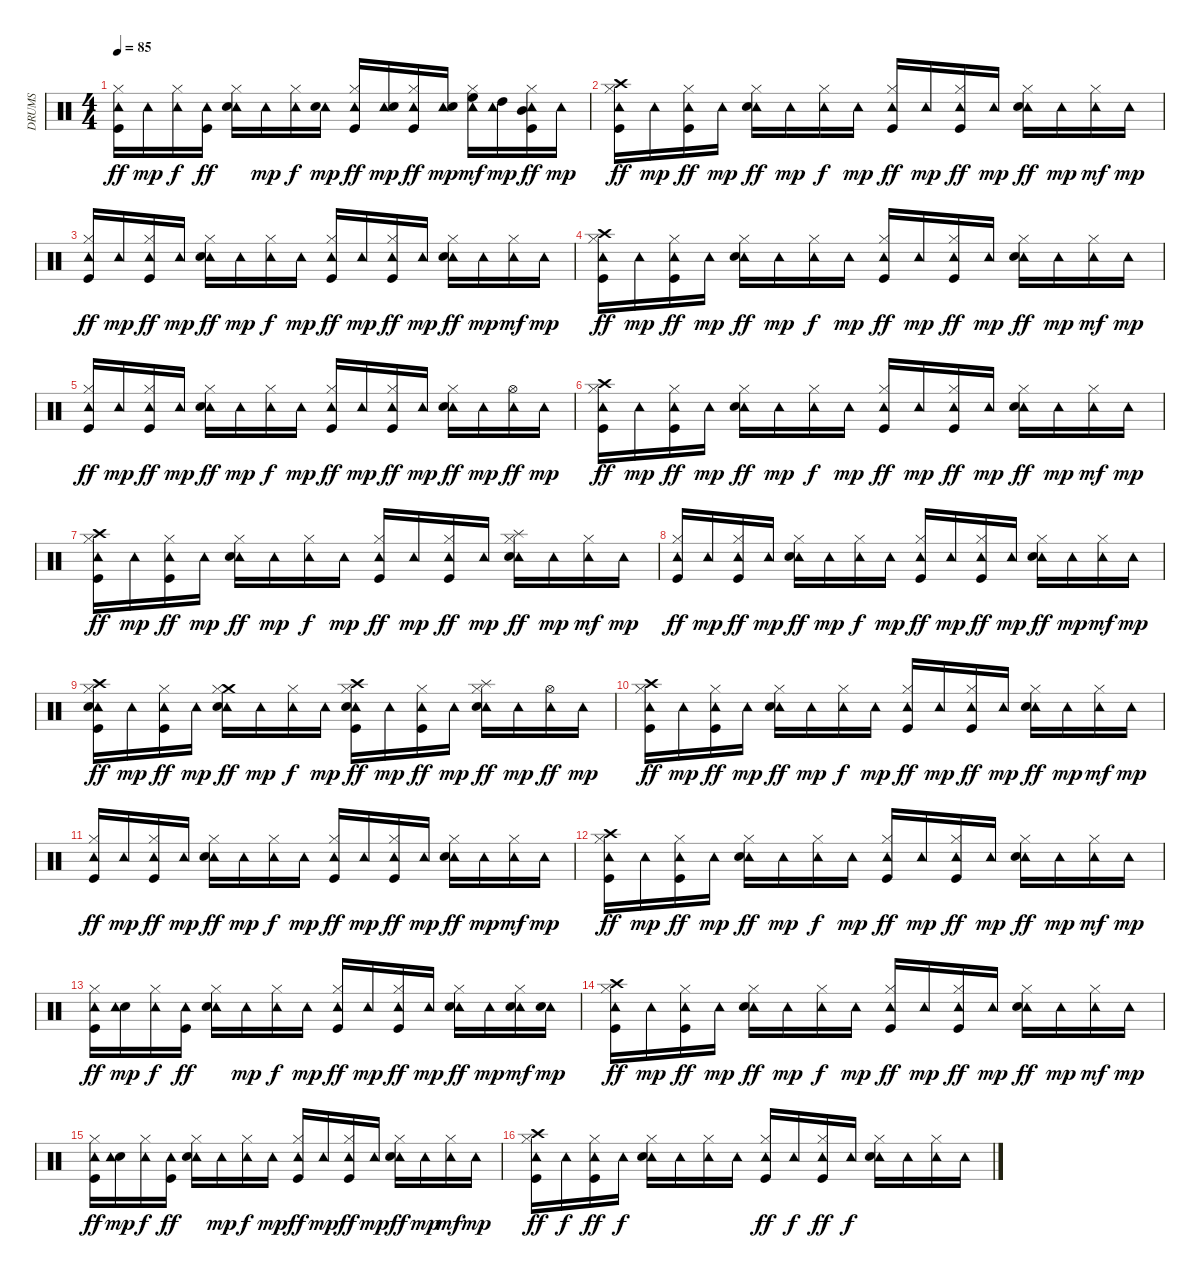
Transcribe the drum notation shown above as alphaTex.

\track ("DRUMS" "DRUMS") {instrument percussion}
\staff {score}
\articulation defaults
\ts (4 4)
\tempo 85
\clef neutral
\ks c
("Tambourine (hit)" "Hi-Hat (closed)" "Kick (hit)").16{dy ff} "Tambourine (hit)".16{dy mp} ("Tambourine (hit)" "Hi-Hat (closed)").16{dy f} ("Tambourine (hit)" "Kick (hit)").16{dy ff} ("Tambourine (hit)" "Electric Snare (hit)" "Hi-Hat (closed)").16 "Tambourine (hit)".16{dy mp} ("Tambourine (hit)" "Hi-Hat (closed)").16{dy f} ("Tambourine (hit)" "Electric Snare (hit)").16{dy mp} ("Tambourine (hit)" "Hi-Hat (closed)" "Kick (hit)").16{dy ff} ("Tambourine (hit)" "Electric Snare (hit)").16{dy mp} ("Tambourine (hit)" "Hi-Hat (closed)" "Kick (hit)").16{dy ff} ("Tambourine (hit)" "Electric Snare (hit)").16{dy mp} ("High Floor Tom (hit)" "Tambourine (hit)" "Hi-Hat (closed)").16{dy mf} ("High Tom (hit)" "Tambourine (hit)").16{dy mp} ("Mid Tom (hit)" "Tambourine (hit)" "Hi-Hat (closed)" "Kick (hit)").16{dy ff} "Tambourine (hit)".16{dy mp} |
("Tambourine (hit)" "Crash high (hit)" "Hi-Hat (closed)" "Kick (hit)").16{dy ff} "Tambourine (hit)".16{dy mp} ("Tambourine (hit)" "Hi-Hat (closed)" "Kick (hit)").16{dy ff} "Tambourine (hit)".16{dy mp} ("Tambourine (hit)" "Electric Snare (hit)" "Hi-Hat (closed)").16{dy ff} "Tambourine (hit)".16{dy mp} ("Tambourine (hit)" "Hi-Hat (closed)").16{dy f} "Tambourine (hit)".16{dy mp} ("Tambourine (hit)" "Hi-Hat (closed)" "Kick (hit)").16{dy ff} "Tambourine (hit)".16{dy mp} ("Tambourine (hit)" "Hi-Hat (closed)" "Kick (hit)").16{dy ff} "Tambourine (hit)".16{dy mp} ("Tambourine (hit)" "Electric Snare (hit)" "Hi-Hat (closed)").16{dy ff} "Tambourine (hit)".16{dy mp} ("Tambourine (hit)" "Hi-Hat (closed)").16{dy mf} "Tambourine (hit)".16{dy mp} |
("Tambourine (hit)" "Hi-Hat (closed)" "Kick (hit)").16{dy ff} "Tambourine (hit)".16{dy mp} ("Tambourine (hit)" "Hi-Hat (closed)" "Kick (hit)").16{dy ff} "Tambourine (hit)".16{dy mp} ("Tambourine (hit)" "Electric Snare (hit)" "Hi-Hat (closed)").16{dy ff} "Tambourine (hit)".16{dy mp} ("Tambourine (hit)" "Hi-Hat (closed)").16{dy f} "Tambourine (hit)".16{dy mp} ("Tambourine (hit)" "Hi-Hat (closed)" "Kick (hit)").16{dy ff} "Tambourine (hit)".16{dy mp} ("Tambourine (hit)" "Hi-Hat (closed)" "Kick (hit)").16{dy ff} "Tambourine (hit)".16{dy mp} ("Tambourine (hit)" "Electric Snare (hit)" "Hi-Hat (closed)").16{dy ff} "Tambourine (hit)".16{dy mp} ("Tambourine (hit)" "Hi-Hat (closed)").16{dy mf} "Tambourine (hit)".16{dy mp} |
("Tambourine (hit)" "Crash high (hit)" "Hi-Hat (closed)" "Kick (hit)").16{dy ff} "Tambourine (hit)".16{dy mp} ("Tambourine (hit)" "Hi-Hat (closed)" "Kick (hit)").16{dy ff} "Tambourine (hit)".16{dy mp} ("Tambourine (hit)" "Electric Snare (hit)" "Hi-Hat (closed)").16{dy ff} "Tambourine (hit)".16{dy mp} ("Tambourine (hit)" "Hi-Hat (closed)").16{dy f} "Tambourine (hit)".16{dy mp} ("Tambourine (hit)" "Hi-Hat (closed)" "Kick (hit)").16{dy ff} "Tambourine (hit)".16{dy mp} ("Tambourine (hit)" "Hi-Hat (closed)" "Kick (hit)").16{dy ff} "Tambourine (hit)".16{dy mp} ("Tambourine (hit)" "Electric Snare (hit)" "Hi-Hat (closed)").16{dy ff} "Tambourine (hit)".16{dy mp} ("Tambourine (hit)" "Hi-Hat (closed)").16{dy mf} "Tambourine (hit)".16{dy mp} |
("Tambourine (hit)" "Hi-Hat (closed)" "Kick (hit)").16{dy ff} "Tambourine (hit)".16{dy mp} ("Tambourine (hit)" "Hi-Hat (closed)" "Kick (hit)").16{dy ff} "Tambourine (hit)".16{dy mp} ("Tambourine (hit)" "Electric Snare (hit)" "Hi-Hat (closed)").16{dy ff} "Tambourine (hit)".16{dy mp} ("Tambourine (hit)" "Hi-Hat (closed)").16{dy f} "Tambourine (hit)".16{dy mp} ("Tambourine (hit)" "Hi-Hat (closed)" "Kick (hit)").16{dy ff} "Tambourine (hit)".16{dy mp} ("Tambourine (hit)" "Hi-Hat (closed)" "Kick (hit)").16{dy ff} "Tambourine (hit)".16{dy mp} ("Tambourine (hit)" "Electric Snare (hit)" "Hi-Hat (closed)").16{dy ff} "Tambourine (hit)".16{dy mp} ("Tambourine (hit)" "Hi-Hat (open)").16{dy ff} "Tambourine (hit)".16{dy mp} |
("Tambourine (hit)" "Crash high (hit)" "Hi-Hat (closed)" "Kick (hit)").16{dy ff} "Tambourine (hit)".16{dy mp} ("Tambourine (hit)" "Hi-Hat (closed)" "Kick (hit)").16{dy ff} "Tambourine (hit)".16{dy mp} ("Tambourine (hit)" "Electric Snare (hit)" "Hi-Hat (closed)").16{dy ff} "Tambourine (hit)".16{dy mp} ("Tambourine (hit)" "Hi-Hat (closed)").16{dy f} "Tambourine (hit)".16{dy mp} ("Tambourine (hit)" "Hi-Hat (closed)" "Kick (hit)").16{dy ff} "Tambourine (hit)".16{dy mp} ("Tambourine (hit)" "Hi-Hat (closed)" "Kick (hit)").16{dy ff} "Tambourine (hit)".16{dy mp} ("Tambourine (hit)" "Electric Snare (hit)" "Hi-Hat (closed)").16{dy ff} "Tambourine (hit)".16{dy mp} ("Tambourine (hit)" "Hi-Hat (closed)").16{dy mf} "Tambourine (hit)".16{dy mp} |
("Tambourine (hit)" "Crash high (hit)" "Hi-Hat (closed)" "Kick (hit)").16{dy ff} "Tambourine (hit)".16{dy mp} ("Tambourine (hit)" "Hi-Hat (closed)" "Kick (hit)").16{dy ff} "Tambourine (hit)".16{dy mp} ("Tambourine (hit)" "Electric Snare (hit)" "Hi-Hat (closed)").16{dy ff} "Tambourine (hit)".16{dy mp} ("Tambourine (hit)" "Hi-Hat (closed)").16{dy f} "Tambourine (hit)".16{dy mp} ("Tambourine (hit)" "Hi-Hat (closed)" "Kick (hit)").16{dy ff} "Tambourine (hit)".16{dy mp} ("Tambourine (hit)" "Hi-Hat (closed)" "Kick (hit)").16{dy ff} "Tambourine (hit)".16{dy mp} ("Tambourine (hit)" "Splash (hit)" "Electric Snare (hit)" "Hi-Hat (closed)").16{dy ff} "Tambourine (hit)".16{dy mp} ("Tambourine (hit)" "Hi-Hat (closed)").16{dy mf} "Tambourine (hit)".16{dy mp} |
("Tambourine (hit)" "Hi-Hat (closed)" "Kick (hit)").16{dy ff} "Tambourine (hit)".16{dy mp} ("Tambourine (hit)" "Hi-Hat (closed)" "Kick (hit)").16{dy ff} "Tambourine (hit)".16{dy mp} ("Tambourine (hit)" "Electric Snare (hit)" "Hi-Hat (closed)").16{dy ff} "Tambourine (hit)".16{dy mp} ("Tambourine (hit)" "Hi-Hat (closed)").16{dy f} "Tambourine (hit)".16{dy mp} ("Tambourine (hit)" "Hi-Hat (closed)" "Kick (hit)").16{dy ff} "Tambourine (hit)".16{dy mp} ("Tambourine (hit)" "Hi-Hat (closed)" "Kick (hit)").16{dy ff} "Tambourine (hit)".16{dy mp} ("Tambourine (hit)" "Electric Snare (hit)" "Hi-Hat (closed)").16{dy ff} "Tambourine (hit)".16{dy mp} ("Tambourine (hit)" "Hi-Hat (closed)").16{dy mf} "Tambourine (hit)".16{dy mp} |
("Tambourine (hit)" "Crash high (hit)" "Electric Snare (hit)" "Hi-Hat (closed)" "Kick (hit)").16{dy ff} "Tambourine (hit)".16{dy mp} ("Tambourine (hit)" "Hi-Hat (closed)" "Kick (hit)").16{dy ff} "Tambourine (hit)".16{dy mp} ("Tambourine (hit)" "Crash medium (hit)" "Electric Snare (hit)" "Hi-Hat (closed)").16{dy ff} "Tambourine (hit)".16{dy mp} ("Tambourine (hit)" "Hi-Hat (closed)").16{dy f} "Tambourine (hit)".16{dy mp} ("Tambourine (hit)" "Crash high (hit)" "Electric Snare (hit)" "Hi-Hat (closed)" "Kick (hit)").16{dy ff} "Tambourine (hit)".16{dy mp} ("Tambourine (hit)" "Hi-Hat (closed)" "Kick (hit)").16{dy ff} "Tambourine (hit)".16{dy mp} ("Tambourine (hit)" "Splash (hit)" "Electric Snare (hit)" "Hi-Hat (closed)").16{dy ff} "Tambourine (hit)".16{dy mp} ("Tambourine (hit)" "Hi-Hat (open)").16{dy ff} "Tambourine (hit)".16{dy mp} |
("Tambourine (hit)" "Crash high (hit)" "Hi-Hat (closed)" "Kick (hit)").16{dy ff} "Tambourine (hit)".16{dy mp} ("Tambourine (hit)" "Hi-Hat (closed)" "Kick (hit)").16{dy ff} "Tambourine (hit)".16{dy mp} ("Tambourine (hit)" "Electric Snare (hit)" "Hi-Hat (closed)").16{dy ff} "Tambourine (hit)".16{dy mp} ("Tambourine (hit)" "Hi-Hat (closed)").16{dy f} "Tambourine (hit)".16{dy mp} ("Tambourine (hit)" "Hi-Hat (closed)" "Kick (hit)").16{dy ff} "Tambourine (hit)".16{dy mp} ("Tambourine (hit)" "Hi-Hat (closed)" "Kick (hit)").16{dy ff} "Tambourine (hit)".16{dy mp} ("Tambourine (hit)" "Electric Snare (hit)" "Hi-Hat (closed)").16{dy ff} "Tambourine (hit)".16{dy mp} ("Tambourine (hit)" "Hi-Hat (closed)").16{dy mf} "Tambourine (hit)".16{dy mp} |
("Tambourine (hit)" "Hi-Hat (closed)" "Kick (hit)").16{dy ff} "Tambourine (hit)".16{dy mp} ("Tambourine (hit)" "Hi-Hat (closed)" "Kick (hit)").16{dy ff} "Tambourine (hit)".16{dy mp} ("Tambourine (hit)" "Electric Snare (hit)" "Hi-Hat (closed)").16{dy ff} "Tambourine (hit)".16{dy mp} ("Tambourine (hit)" "Hi-Hat (closed)").16{dy f} "Tambourine (hit)".16{dy mp} ("Tambourine (hit)" "Hi-Hat (closed)" "Kick (hit)").16{dy ff} "Tambourine (hit)".16{dy mp} ("Tambourine (hit)" "Hi-Hat (closed)" "Kick (hit)").16{dy ff} "Tambourine (hit)".16{dy mp} ("Tambourine (hit)" "Electric Snare (hit)" "Hi-Hat (closed)").16{dy ff} "Tambourine (hit)".16{dy mp} ("Tambourine (hit)" "Hi-Hat (closed)").16{dy mf} "Tambourine (hit)".16{dy mp} |
("Tambourine (hit)" "Crash high (hit)" "Hi-Hat (closed)" "Kick (hit)").16{dy ff} "Tambourine (hit)".16{dy mp} ("Tambourine (hit)" "Hi-Hat (closed)" "Kick (hit)").16{dy ff} "Tambourine (hit)".16{dy mp} ("Tambourine (hit)" "Electric Snare (hit)" "Hi-Hat (closed)").16{dy ff} "Tambourine (hit)".16{dy mp} ("Tambourine (hit)" "Hi-Hat (closed)").16{dy f} "Tambourine (hit)".16{dy mp} ("Tambourine (hit)" "Hi-Hat (closed)" "Kick (hit)").16{dy ff} "Tambourine (hit)".16{dy mp} ("Tambourine (hit)" "Hi-Hat (closed)" "Kick (hit)").16{dy ff} "Tambourine (hit)".16{dy mp} ("Tambourine (hit)" "Electric Snare (hit)" "Hi-Hat (closed)").16{dy ff} "Tambourine (hit)".16{dy mp} ("Tambourine (hit)" "Hi-Hat (closed)").16{dy mf} "Tambourine (hit)".16{dy mp} |
("Tambourine (hit)" "Hi-Hat (closed)" "Kick (hit)").16{dy ff} ("Electric Snare (hit)" "Tambourine (hit)").16{dy mp} ("Tambourine (hit)" "Hi-Hat (closed)").16{dy f} ("Tambourine (hit)" "Kick (hit)").16{dy ff} ("Tambourine (hit)" "Electric Snare (hit)" "Hi-Hat (closed)").16 "Tambourine (hit)".16{dy mp} ("Tambourine (hit)" "Hi-Hat (closed)").16{dy f} "Tambourine (hit)".16{dy mp} ("Tambourine (hit)" "Hi-Hat (closed)" "Kick (hit)").16{dy ff} "Tambourine (hit)".16{dy mp} ("Tambourine (hit)" "Hi-Hat (closed)" "Kick (hit)").16{dy ff} "Tambourine (hit)".16{dy mp} ("Tambourine (hit)" "Electric Snare (hit)" "Hi-Hat (closed)").16{dy ff} "Tambourine (hit)".16{dy mp} ("Tambourine (hit)" "Electric Snare (hit)" "Hi-Hat (closed)").16{dy mf} ("Tambourine (hit)" "Electric Snare (hit)").16{dy mp} |
("Tambourine (hit)" "Crash high (hit)" "Hi-Hat (closed)" "Kick (hit)").16{dy ff} "Tambourine (hit)".16{dy mp} ("Tambourine (hit)" "Hi-Hat (closed)" "Kick (hit)").16{dy ff} "Tambourine (hit)".16{dy mp} ("Tambourine (hit)" "Electric Snare (hit)" "Hi-Hat (closed)").16{dy ff} "Tambourine (hit)".16{dy mp} ("Tambourine (hit)" "Hi-Hat (closed)").16{dy f} "Tambourine (hit)".16{dy mp} ("Tambourine (hit)" "Hi-Hat (closed)" "Kick (hit)").16{dy ff} "Tambourine (hit)".16{dy mp} ("Tambourine (hit)" "Hi-Hat (closed)" "Kick (hit)").16{dy ff} "Tambourine (hit)".16{dy mp} ("Tambourine (hit)" "Electric Snare (hit)" "Hi-Hat (closed)").16{dy ff} "Tambourine (hit)".16{dy mp} ("Tambourine (hit)" "Hi-Hat (closed)").16{dy mf} "Tambourine (hit)".16{dy mp} |
("Tambourine (hit)" "Hi-Hat (closed)" "Kick (hit)").16{dy ff} ("Electric Snare (hit)" "Tambourine (hit)").16{dy mp} ("Tambourine (hit)" "Hi-Hat (closed)").16{dy f} ("Tambourine (hit)" "Kick (hit)").16{dy ff} ("Tambourine (hit)" "Electric Snare (hit)" "Hi-Hat (closed)").16 "Tambourine (hit)".16{dy mp} ("Tambourine (hit)" "Hi-Hat (closed)").16{dy f} "Tambourine (hit)".16{dy mp} ("Tambourine (hit)" "Hi-Hat (closed)" "Kick (hit)").16{dy ff} "Tambourine (hit)".16{dy mp} ("Tambourine (hit)" "Hi-Hat (closed)" "Kick (hit)").16{dy ff} "Tambourine (hit)".16{dy mp} ("Tambourine (hit)" "Electric Snare (hit)" "Hi-Hat (closed)").16{dy ff} "Tambourine (hit)".16{dy mp} ("Tambourine (hit)" "Hi-Hat (closed)").16{dy mf} "Tambourine (hit)".16{dy mp} |
("Tambourine (hit)" "Crash high (hit)" "Hi-Hat (closed)" "Kick (hit)").16{dy ff} "Tambourine (hit)".16{dy f} ("Tambourine (hit)" "Hi-Hat (closed)" "Kick (hit)").16{dy ff} "Tambourine (hit)".16{dy f} ("Tambourine (hit)" "Electric Snare (hit)" "Hi-Hat (closed)").16 "Tambourine (hit)".16 ("Tambourine (hit)" "Hi-Hat (closed)").16 "Tambourine (hit)".16 ("Tambourine (hit)" "Hi-Hat (closed)" "Kick (hit)").16{dy ff} "Tambourine (hit)".16{dy f} ("Tambourine (hit)" "Hi-Hat (closed)" "Kick (hit)").16{dy ff} "Tambourine (hit)".16{dy f} ("Tambourine (hit)" "Electric Snare (hit)" "Hi-Hat (closed)").16 "Tambourine (hit)".16 ("Tambourine (hit)" "Hi-Hat (closed)").16 "Tambourine (hit)".16
